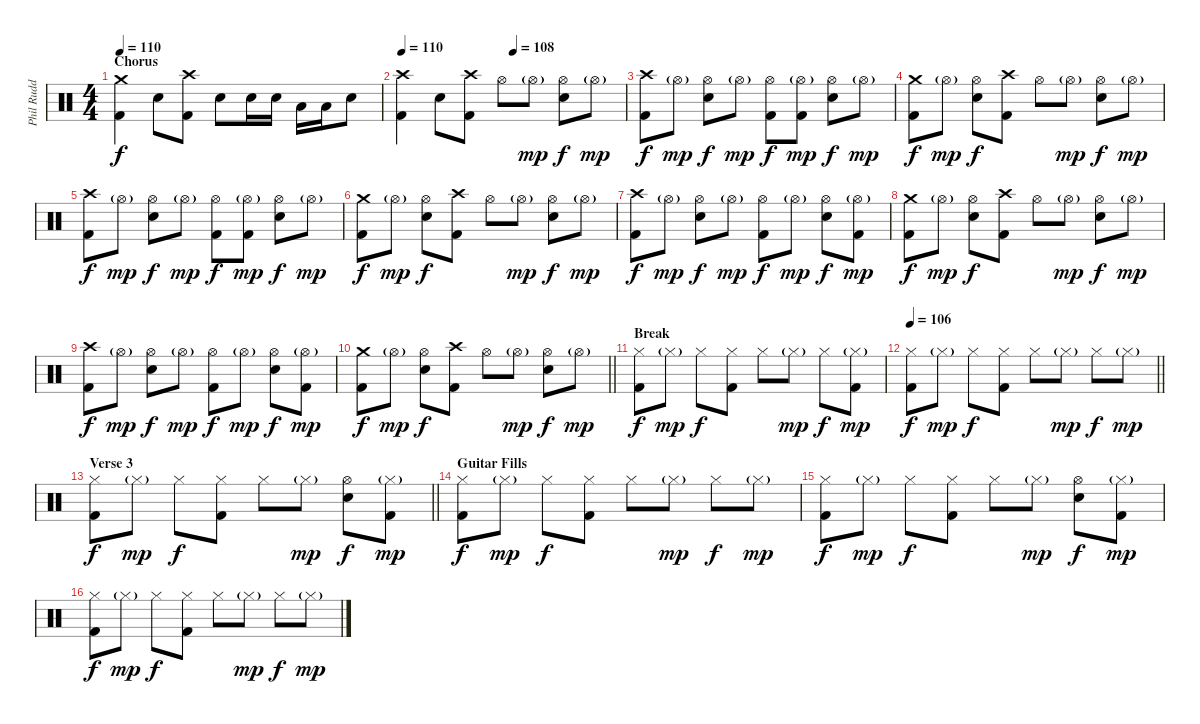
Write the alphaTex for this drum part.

\track ("Phil Rudd" "Phil Rudd") {instrument percussion}
\staff {score}
\articulation defaults
\ts (4 4)
\section ("" "Chorus")
\tempo 110
\clef neutral
\ks c
("Crash medium (hit)" "Kick (hit) 2").4{dy f} "Electric Snare (hit)".8 ("Crash high (hit)" "Kick (hit) 2").8 "Electric Snare (hit)".8 "Electric Snare (hit)".16 "Electric Snare (hit)".16 "Low Tom (hit)".16 "Low Tom (hit)".16 "Electric Snare (hit)".8 |
\tempo 110
\tempo (108 0.5)
("Crash high (hit)" "Kick (hit) 2").4 "Electric Snare (hit)".8 ("Crash high (hit)" "Kick (hit) 2").8 "Hi-Hat (open)".8 "Hi-Hat (open)"{g}.8{dy mp} ("Hi-Hat (open)" "Electric Snare (hit)").8{dy f} "Hi-Hat (open)"{g}.8{dy mp} |
("Crash high (hit)" "Kick (hit) 2").8{dy f} "Hi-Hat (open)"{g}.8{dy mp} ("Hi-Hat (open)" "Electric Snare (hit)").8{dy f} "Hi-Hat (open)"{g}.8{dy mp} ("Hi-Hat (open)" "Kick (hit) 2").8{dy f} ("Hi-Hat (open)"{g} "Kick (hit) 2").8{dy mp} ("Hi-Hat (open)" "Electric Snare (hit)").8{dy f} "Hi-Hat (open)"{g}.8{dy mp} |
("Crash medium (hit)" "Kick (hit) 2").8{dy f} "Hi-Hat (open)"{g}.8{dy mp} ("Hi-Hat (open)" "Electric Snare (hit)").8{dy f} ("Crash high (hit)" "Kick (hit) 2").8 "Hi-Hat (open)".8 "Hi-Hat (open)"{g}.8{dy mp} ("Hi-Hat (open)" "Electric Snare (hit)").8{dy f} "Hi-Hat (open)"{g}.8{dy mp} |
("Crash high (hit)" "Kick (hit) 2").8{dy f} "Hi-Hat (open)"{g}.8{dy mp} ("Hi-Hat (open)" "Electric Snare (hit)").8{dy f} "Hi-Hat (open)"{g}.8{dy mp} ("Hi-Hat (open)" "Kick (hit) 2").8{dy f} ("Hi-Hat (open)"{g} "Kick (hit) 2").8{dy mp} ("Hi-Hat (open)" "Electric Snare (hit)").8{dy f} "Hi-Hat (open)"{g}.8{dy mp} |
("Crash medium (hit)" "Kick (hit) 2").8{dy f} "Hi-Hat (open)"{g}.8{dy mp} ("Hi-Hat (open)" "Electric Snare (hit)").8{dy f} ("Crash high (hit)" "Kick (hit) 2").8 "Hi-Hat (open)".8 "Hi-Hat (open)"{g}.8{dy mp} ("Hi-Hat (open)" "Electric Snare (hit)").8{dy f} "Hi-Hat (open)"{g}.8{dy mp} |
("Crash high (hit)" "Kick (hit) 2").8{dy f} "Hi-Hat (open)"{g}.8{dy mp} ("Hi-Hat (open)" "Electric Snare (hit)").8{dy f} "Hi-Hat (open)"{g}.8{dy mp} ("Hi-Hat (open)" "Kick (hit) 2").8{dy f} "Hi-Hat (open)"{g}.8{dy mp} ("Hi-Hat (open)" "Electric Snare (hit)").8{dy f} ("Hi-Hat (open)"{g} "Kick (hit) 2").8{dy mp} |
("Crash medium (hit)" "Kick (hit) 2").8{dy f} "Hi-Hat (open)"{g}.8{dy mp} ("Hi-Hat (open)" "Electric Snare (hit)").8{dy f} ("Crash high (hit)" "Kick (hit) 2").8 "Hi-Hat (open)".8 "Hi-Hat (open)"{g}.8{dy mp} ("Hi-Hat (open)" "Electric Snare (hit)").8{dy f} "Hi-Hat (open)"{g}.8{dy mp} |
("Crash high (hit)" "Kick (hit) 2").8{dy f} "Hi-Hat (open)"{g}.8{dy mp} ("Hi-Hat (open)" "Electric Snare (hit)").8{dy f} "Hi-Hat (open)"{g}.8{dy mp} ("Hi-Hat (open)" "Kick (hit) 2").8{dy f} "Hi-Hat (open)"{g}.8{dy mp} ("Hi-Hat (open)" "Electric Snare (hit)").8{dy f} ("Hi-Hat (open)"{g} "Kick (hit) 2").8{dy mp} |
\barLineRight lightlight
("Crash medium (hit)" "Kick (hit) 2").8{dy f} "Hi-Hat (open)"{g}.8{dy mp} ("Hi-Hat (open)" "Electric Snare (hit)").8{dy f} ("Crash high (hit)" "Kick (hit) 2").8 "Hi-Hat (open)".8 "Hi-Hat (open)"{g}.8{dy mp} ("Hi-Hat (open)" "Electric Snare (hit)").8{dy f} "Hi-Hat (open)"{g}.8{dy mp} |
\section ("" "Break ")
("Hi-Hat (closed)" "Kick (hit) 2").8{dy f} "Hi-Hat (closed)"{g}.8{dy mp} "Hi-Hat (closed)".8{dy f} ("Hi-Hat (closed)" "Kick (hit) 2").8 "Hi-Hat (closed)".8 "Hi-Hat (closed)"{g}.8{dy mp} "Hi-Hat (closed)".8{dy f} ("Hi-Hat (closed)"{g} "Kick (hit) 2").8{dy mp} |
\tempo 106
\barLineRight lightlight
("Hi-Hat (closed)" "Kick (hit) 2").8{dy f} "Hi-Hat (closed)"{g}.8{dy mp} "Hi-Hat (closed)".8{dy f} ("Hi-Hat (closed)" "Kick (hit) 2").8 "Hi-Hat (closed)".8 "Hi-Hat (closed)"{g}.8{dy mp} "Hi-Hat (closed)".8{dy f} "Hi-Hat (closed)"{g}.8{dy mp} |
\section ("" "Verse 3")
\barLineRight lightlight
("Hi-Hat (closed)" "Kick (hit) 2").8{dy f} "Hi-Hat (closed)"{g}.8{dy mp} "Hi-Hat (closed)".8{dy f} ("Hi-Hat (closed)" "Kick (hit) 2").8 "Hi-Hat (closed)".8 "Hi-Hat (closed)"{g}.8{dy mp} ("Hi-Hat (open)" "Electric Snare (hit)").8{dy f} ("Hi-Hat (closed)"{g} "Kick (hit) 2").8{dy mp} |
\section ("" "Guitar Fills")
("Hi-Hat (closed)" "Kick (hit) 2").8{dy f} "Hi-Hat (closed)"{g}.8{dy mp} "Hi-Hat (closed)".8{dy f} ("Hi-Hat (closed)" "Kick (hit) 2").8 "Hi-Hat (closed)".8 "Hi-Hat (closed)"{g}.8{dy mp} "Hi-Hat (closed)".8{dy f} "Hi-Hat (closed)"{g}.8{dy mp} |
("Hi-Hat (closed)" "Kick (hit) 2").8{dy f} "Hi-Hat (closed)"{g}.8{dy mp} "Hi-Hat (closed)".8{dy f} ("Hi-Hat (closed)" "Kick (hit) 2").8 "Hi-Hat (closed)".8 "Hi-Hat (closed)"{g}.8{dy mp} ("Hi-Hat (open)" "Electric Snare (hit)").8{dy f} ("Hi-Hat (closed)"{g} "Kick (hit) 2").8{dy mp} |
("Hi-Hat (closed)" "Kick (hit) 2").8{dy f} "Hi-Hat (closed)"{g}.8{dy mp} "Hi-Hat (closed)".8{dy f} ("Hi-Hat (closed)" "Kick (hit) 2").8 "Hi-Hat (closed)".8 "Hi-Hat (closed)"{g}.8{dy mp} "Hi-Hat (closed)".8{dy f} "Hi-Hat (closed)"{g}.8{dy mp}
